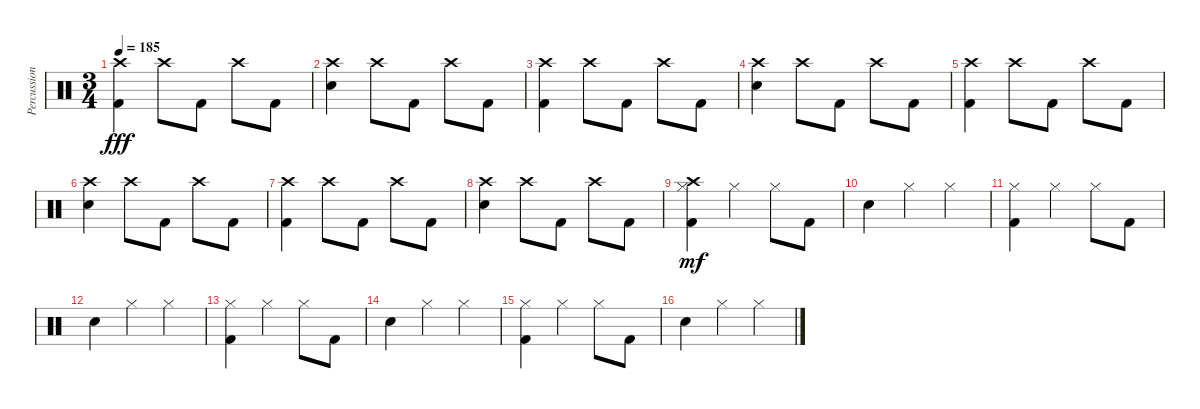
\track ("Percussion" "Percussion") {instrument percussion}
\staff {score}
\articulation defaults
\ts (3 4)
\tempo 185
\clef neutral
\ks c
("Crash high (hit)" "Kick (hit) 2").4{dy fff} "Crash high (hit)".8 "Kick (hit) 2".8 "Crash high (hit)".8 "Kick (hit) 2".8 |
("Crash high (hit)" "Electric Snare (hit)").4 "Crash high (hit)".8 "Kick (hit) 2".8 "Crash high (hit)".8 "Kick (hit) 2".8 |
("Crash high (hit)" "Kick (hit) 2").4 "Crash high (hit)".8 "Kick (hit) 2".8 "Crash high (hit)".8 "Kick (hit) 2".8 |
("Crash high (hit)" "Electric Snare (hit)").4 "Crash high (hit)".8 "Kick (hit) 2".8 "Crash high (hit)".8 "Kick (hit) 2".8 |
("Crash high (hit)" "Kick (hit) 2").4 "Crash high (hit)".8 "Kick (hit) 2".8 "Crash high (hit)".8 "Kick (hit) 2".8 |
("Crash high (hit)" "Electric Snare (hit)").4 "Crash high (hit)".8 "Kick (hit) 2".8 "Crash high (hit)".8 "Kick (hit) 2".8 |
("Crash high (hit)" "Kick (hit) 2").4 "Crash high (hit)".8 "Kick (hit) 2".8 "Crash high (hit)".8 "Kick (hit) 2".8 |
("Crash high (hit)" "Electric Snare (hit)").4 "Crash high (hit)".8 "Kick (hit) 2".8 "Crash high (hit)".8 "Kick (hit) 2".8 |
("Crash high (hit)" "Kick (hit) 2" "Hi-Hat (closed)").4{dy mf} "Hi-Hat (closed)".4 "Hi-Hat (closed)".8 "Kick (hit) 2".8 |
"Electric Snare (hit)".4 "Hi-Hat (closed)".4 "Hi-Hat (closed)".4 |
("Kick (hit) 2" "Hi-Hat (closed)").4 "Hi-Hat (closed)".4 "Hi-Hat (closed)".8 "Kick (hit) 2".8 |
"Electric Snare (hit)".4 "Hi-Hat (closed)".4 "Hi-Hat (closed)".4 |
("Kick (hit) 2" "Hi-Hat (closed)").4 "Hi-Hat (closed)".4 "Hi-Hat (closed)".8 "Kick (hit) 2".8 |
"Electric Snare (hit)".4 "Hi-Hat (closed)".4 "Hi-Hat (closed)".4 |
("Kick (hit) 2" "Hi-Hat (closed)").4 "Hi-Hat (closed)".4 "Hi-Hat (closed)".8 "Kick (hit) 2".8 |
"Electric Snare (hit)".4 "Hi-Hat (closed)".4 "Hi-Hat (closed)".4
